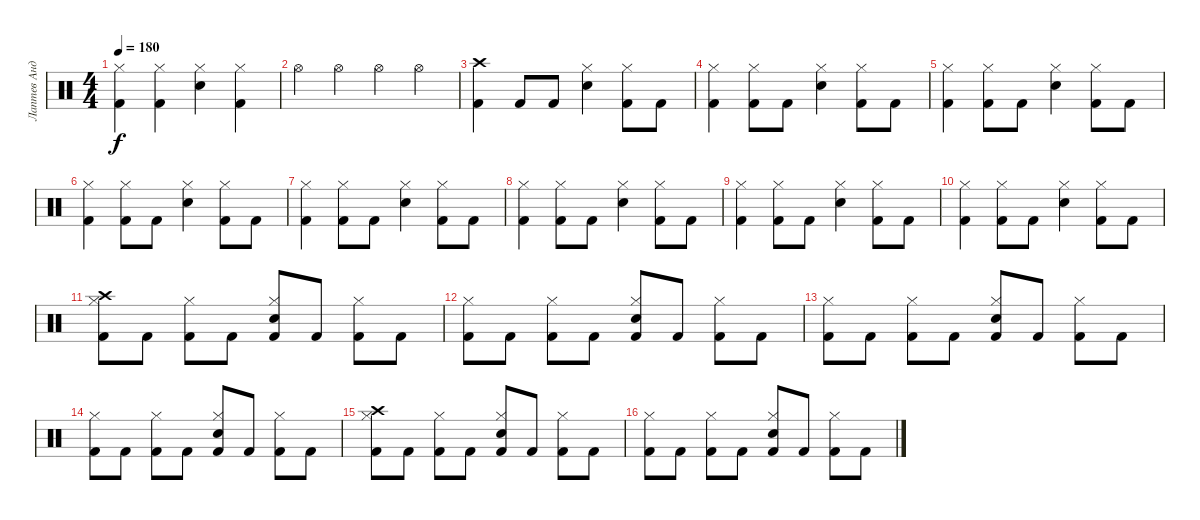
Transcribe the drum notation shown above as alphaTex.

\track ("Лаптев Андрей" "Лаптев Анд") {instrument percussion}
\staff {score}
\articulation defaults
\ts (4 4)
\tempo 180
\clef neutral
\ks c
("Kick (hit) 2" "Hi-Hat (closed)").4{dy f} ("Kick (hit) 2" "Hi-Hat (closed)").4 ("Snare (hit) 2" "Hi-Hat (closed)").4 ("Kick (hit) 2" "Hi-Hat (closed)").4 |
"Hi-Hat (open)".4 "Hi-Hat (open)".4 "Hi-Hat (open)".4 "Hi-Hat (open)".4 |
("Kick (hit) 2" "Crash high (hit)").4 "Kick (hit) 2".8 "Kick (hit) 2".8 ("Snare (hit) 2" "Hi-Hat (closed)").4 ("Kick (hit) 2" "Hi-Hat (closed)").8 "Kick (hit) 2".8 |
("Kick (hit) 2" "Hi-Hat (closed)").4 ("Kick (hit) 2" "Hi-Hat (closed)").8 "Kick (hit) 2".8 ("Snare (hit) 2" "Hi-Hat (closed)").4 ("Kick (hit) 2" "Hi-Hat (closed)").8 "Kick (hit) 2".8 |
("Kick (hit) 2" "Hi-Hat (closed)").4 ("Kick (hit) 2" "Hi-Hat (closed)").8 "Kick (hit) 2".8 ("Snare (hit) 2" "Hi-Hat (closed)").4 ("Kick (hit) 2" "Hi-Hat (closed)").8 "Kick (hit) 2".8 |
("Kick (hit) 2" "Hi-Hat (closed)").4 ("Kick (hit) 2" "Hi-Hat (closed)").8 "Kick (hit) 2".8 ("Snare (hit) 2" "Hi-Hat (closed)").4 ("Kick (hit) 2" "Hi-Hat (closed)").8 "Kick (hit) 2".8 |
("Kick (hit) 2" "Hi-Hat (closed)").4 ("Kick (hit) 2" "Hi-Hat (closed)").8 "Kick (hit) 2".8 ("Snare (hit) 2" "Hi-Hat (closed)").4 ("Kick (hit) 2" "Hi-Hat (closed)").8 "Kick (hit) 2".8 |
("Kick (hit) 2" "Hi-Hat (closed)").4 ("Kick (hit) 2" "Hi-Hat (closed)").8 "Kick (hit) 2".8 ("Snare (hit) 2" "Hi-Hat (closed)").4 ("Kick (hit) 2" "Hi-Hat (closed)").8 "Kick (hit) 2".8 |
("Kick (hit) 2" "Hi-Hat (closed)").4 ("Kick (hit) 2" "Hi-Hat (closed)").8 "Kick (hit) 2".8 ("Snare (hit) 2" "Hi-Hat (closed)").4 ("Kick (hit) 2" "Hi-Hat (closed)").8 "Kick (hit) 2".8 |
("Kick (hit) 2" "Hi-Hat (closed)").4 ("Kick (hit) 2" "Hi-Hat (closed)").8 "Kick (hit) 2".8 ("Snare (hit) 2" "Hi-Hat (closed)").4 ("Kick (hit) 2" "Hi-Hat (closed)").8 "Kick (hit) 2".8 |
("Kick (hit) 2" "Hi-Hat (closed)" "Crash high (hit)").8 "Kick (hit) 2".8 ("Kick (hit) 2" "Hi-Hat (closed)").8 "Kick (hit) 2".8 ("Snare (hit) 2" "Kick (hit) 2" "Hi-Hat (closed)").8 "Kick (hit) 2".8 ("Kick (hit) 2" "Hi-Hat (closed)").8 "Kick (hit) 2".8 |
("Kick (hit) 2" "Hi-Hat (closed)").8 "Kick (hit) 2".8 ("Kick (hit) 2" "Hi-Hat (closed)").8 "Kick (hit) 2".8 ("Snare (hit) 2" "Kick (hit) 2" "Hi-Hat (closed)").8 "Kick (hit) 2".8 ("Kick (hit) 2" "Hi-Hat (closed)").8 "Kick (hit) 2".8 |
("Kick (hit) 2" "Hi-Hat (closed)").8 "Kick (hit) 2".8 ("Kick (hit) 2" "Hi-Hat (closed)").8 "Kick (hit) 2".8 ("Snare (hit) 2" "Kick (hit) 2" "Hi-Hat (closed)").8 "Kick (hit) 2".8 ("Kick (hit) 2" "Hi-Hat (closed)").8 "Kick (hit) 2".8 |
("Kick (hit) 2" "Hi-Hat (closed)").8 "Kick (hit) 2".8 ("Kick (hit) 2" "Hi-Hat (closed)").8 "Kick (hit) 2".8 ("Snare (hit) 2" "Kick (hit) 2" "Hi-Hat (closed)").8 "Kick (hit) 2".8 ("Kick (hit) 2" "Hi-Hat (closed)").8 "Kick (hit) 2".8 |
("Kick (hit) 2" "Hi-Hat (closed)" "Crash high (hit)").8 "Kick (hit) 2".8 ("Kick (hit) 2" "Hi-Hat (closed)").8 "Kick (hit) 2".8 ("Snare (hit) 2" "Kick (hit) 2" "Hi-Hat (closed)").8 "Kick (hit) 2".8 ("Kick (hit) 2" "Hi-Hat (closed)").8 "Kick (hit) 2".8 |
("Kick (hit) 2" "Hi-Hat (closed)").8 "Kick (hit) 2".8 ("Kick (hit) 2" "Hi-Hat (closed)").8 "Kick (hit) 2".8 ("Snare (hit) 2" "Kick (hit) 2" "Hi-Hat (closed)").8 "Kick (hit) 2".8 ("Kick (hit) 2" "Hi-Hat (closed)").8 "Kick (hit) 2".8
